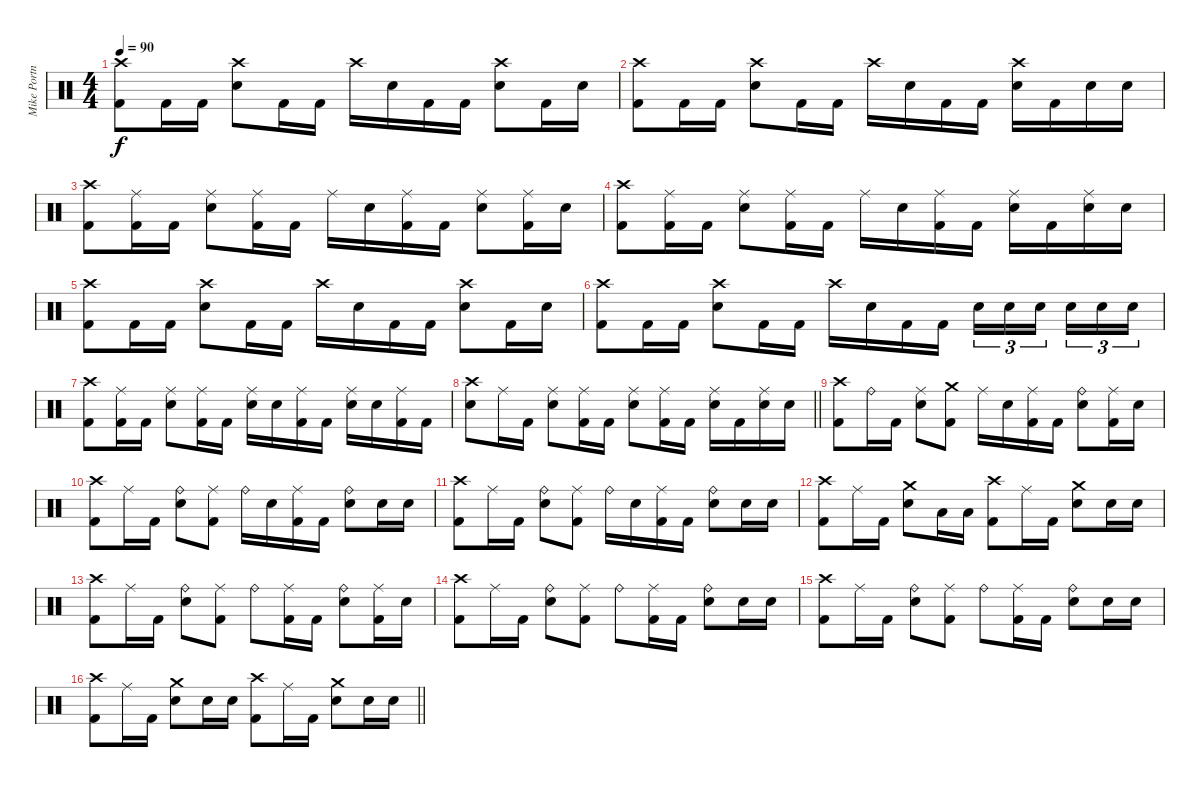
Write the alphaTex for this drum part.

\track ("Mike Portnoy" "Mike Portn") {instrument percussion}
\staff {score}
\articulation defaults
\ts (4 4)
\tempo 90
\clef neutral
\ks c
("Crash high (hit)" "Kick (hit) 2").8{dy f} "Kick (hit) 2".16 "Kick (hit) 2".16 ("Crash high (hit)" "Snare (hit) 2").8 "Kick (hit) 2".16 "Kick (hit) 2".16 "Crash high (hit)".16 "Snare (hit) 2".16 "Kick (hit) 2".16 "Kick (hit) 2".16 ("Crash high (hit)" "Snare (hit) 2").8 "Kick (hit) 2".16 "Snare (hit) 2".16 |
("Crash high (hit)" "Kick (hit) 2").8 "Kick (hit) 2".16 "Kick (hit) 2".16 ("Crash high (hit)" "Snare (hit) 2").8 "Kick (hit) 2".16 "Kick (hit) 2".16 "Crash high (hit)".16 "Snare (hit) 2".16 "Kick (hit) 2".16 "Kick (hit) 2".16 ("Crash high (hit)" "Snare (hit) 2").16 "Kick (hit) 2".16 "Snare (hit) 2".16 "Snare (hit) 2".16 |
("Crash high (hit)" "Kick (hit) 2").8 ("Ride (middle)" "Kick (hit) 2").16 "Kick (hit) 2".16 ("Ride (middle)" "Snare (hit) 2").8 ("Ride (middle)" "Kick (hit) 2").16 "Kick (hit) 2".16 "Ride (middle)".16 "Snare (hit) 2".16 ("Ride (middle)" "Kick (hit) 2").16 "Kick (hit) 2".16 ("Ride (middle)" "Snare (hit) 2").8 ("Ride (middle)" "Kick (hit) 2").16 "Snare (hit) 2".16 |
("Crash high (hit)" "Kick (hit) 2").8 ("Ride (middle)" "Kick (hit) 2").16 "Kick (hit) 2".16 ("Ride (middle)" "Snare (hit) 2").8 ("Ride (middle)" "Kick (hit) 2").16 "Kick (hit) 2".16 "Ride (middle)".16 "Snare (hit) 2".16 ("Ride (middle)" "Kick (hit) 2").16 "Kick (hit) 2".16 ("Ride (middle)" "Snare (hit) 2").16 "Kick (hit) 2".16 ("Ride (middle)" "Snare (hit) 2").16 "Snare (hit) 2".16 |
("Crash high (hit)" "Kick (hit) 2").8 "Kick (hit) 2".16 "Kick (hit) 2".16 ("Crash high (hit)" "Snare (hit) 2").8 "Kick (hit) 2".16 "Kick (hit) 2".16 "Crash high (hit)".16 "Snare (hit) 2".16 "Kick (hit) 2".16 "Kick (hit) 2".16 ("Crash high (hit)" "Snare (hit) 2").8 "Kick (hit) 2".16 "Snare (hit) 2".16 |
("Crash high (hit)" "Kick (hit) 2").8 "Kick (hit) 2".16 "Kick (hit) 2".16 ("Crash high (hit)" "Snare (hit) 2").8 "Kick (hit) 2".16 "Kick (hit) 2".16 "Crash high (hit)".16 "Snare (hit) 2".16 "Kick (hit) 2".16 "Kick (hit) 2".16 "Snare (hit) 2".16{tu (3 2)} "Snare (hit) 2".16{tu (3 2)} "Snare (hit) 2".16{tu (3 2) beam splitsecondary} "Snare (hit) 2".16{tu (3 2)} "Snare (hit) 2".16{tu (3 2)} "Snare (hit) 2".16{tu (3 2)} |
("Crash high (hit)" "Kick (hit) 2").8 ("Ride (middle)" "Kick (hit) 2").16 "Kick (hit) 2".16 ("Ride (middle)" "Snare (hit) 2").8 ("Ride (middle)" "Kick (hit) 2").16 "Kick (hit) 2".16 ("Ride (middle)" "Snare (hit) 2").16 "Snare (hit) 2".16 ("Ride (middle)" "Kick (hit) 2").16 "Kick (hit) 2".16 ("Ride (middle)" "Snare (hit) 2").16 "Snare (hit) 2".16 ("Ride (middle)" "Kick (hit) 2").16 "Kick (hit) 2".16 |
\barLineRight lightlight
("Crash high (hit)" "Snare (hit) 2").8 "Ride (middle)".16 "Kick (hit) 2".16 ("Ride (middle)" "Snare (hit) 2").8 ("Ride (middle)" "Kick (hit) 2").16 "Kick (hit) 2".16 ("Ride (middle)" "Snare (hit) 2").8 ("Ride (middle)" "Kick (hit) 2").16 "Kick (hit) 2".16 ("Ride (middle)" "Snare (hit) 2").16 "Kick (hit) 2".16 ("Ride (middle)" "Snare (hit) 2").16 "Snare (hit) 2".16 |
("Crash high (hit)" "Kick (hit) 2").8 "Ride (bell)".16 "Kick (hit) 2".16 ("Ride (middle)" "Snare (hit) 2").8 ("Crash medium (hit)" "Kick (hit) 2").8 "Ride (middle)".16 "Snare (hit) 2".16 ("Ride (middle)" "Kick (hit) 2").16 "Kick (hit) 2".16 ("Ride (bell)" "Snare (hit) 2").8 ("Ride (middle)" "Kick (hit) 2").16 "Snare (hit) 2".16 |
("Crash high (hit)" "Kick (hit) 2").8 "Ride (middle)".16 "Kick (hit) 2".16 ("Ride (bell)" "Snare (hit) 2").8 ("Ride (middle)" "Kick (hit) 2").8 "Ride (bell)".16 "Snare (hit) 2".16 ("Ride (middle)" "Kick (hit) 2").16 "Kick (hit) 2".16 ("Ride (bell)" "Snare (hit) 2").8 "Snare (hit) 2".16 "Snare (hit) 2".16 |
("Crash high (hit)" "Kick (hit) 2").8 "Ride (middle)".16 "Kick (hit) 2".16 ("Ride (bell)" "Snare (hit) 2").8 ("Ride (middle)" "Kick (hit) 2").8 "Ride (bell)".16 "Snare (hit) 2".16 ("Ride (middle)" "Kick (hit) 2").16 "Kick (hit) 2".16 ("Ride (bell)" "Snare (hit) 2").8 "Snare (hit) 2".16 "Snare (hit) 2".16 |
("Crash high (hit)" "Kick (hit) 2").8 "Ride (middle)".16 "Kick (hit) 2".16 ("Crash medium (hit)" "Snare (hit) 2").8 "Low Tom (hit)".16 "Low Tom (hit)".16 ("Crash high (hit)" "Kick (hit) 2").8 "Ride (middle)".16 "Kick (hit) 2".16 ("Crash medium (hit)" "Snare (hit) 2").8 "Snare (hit) 2".16 "Snare (hit) 2".16 |
("Crash high (hit)" "Kick (hit) 2").8 "Ride (middle)".16 "Kick (hit) 2".16 ("Ride (bell)" "Snare (hit) 2").8 ("Ride (middle)" "Kick (hit) 2").8 "Ride (bell)".8 ("Ride (middle)" "Kick (hit) 2").16 "Kick (hit) 2".16 ("Ride (bell)" "Snare (hit) 2").8 ("Ride (middle)" "Kick (hit) 2").16 "Snare (hit) 2".16 |
("Crash high (hit)" "Kick (hit) 2").8 "Ride (middle)".16 "Kick (hit) 2".16 ("Ride (bell)" "Snare (hit) 2").8 ("Ride (middle)" "Kick (hit) 2").8 "Ride (bell)".8 ("Ride (middle)" "Kick (hit) 2").16 "Kick (hit) 2".16 ("Ride (bell)" "Snare (hit) 2").8 "Snare (hit) 2".16 "Snare (hit) 2".16 |
("Crash high (hit)" "Kick (hit) 2").8 "Ride (middle)".16 "Kick (hit) 2".16 ("Ride (bell)" "Snare (hit) 2").8 ("Ride (middle)" "Kick (hit) 2").8 "Ride (bell)".8 ("Ride (middle)" "Kick (hit) 2").16 "Kick (hit) 2".16 ("Ride (bell)" "Snare (hit) 2").8 "Snare (hit) 2".16 "Snare (hit) 2".16 |
\barLineRight lightlight
("Crash high (hit)" "Kick (hit) 2").8 "Ride (middle)".16 "Kick (hit) 2".16 ("Crash medium (hit)" "Snare (hit) 2").8 "Snare (hit) 2".16 "Snare (hit) 2".16 ("Crash high (hit)" "Kick (hit) 2").8 "Ride (middle)".16 "Kick (hit) 2".16 ("Crash medium (hit)" "Snare (hit) 2").8 "Snare (hit) 2".16 "Snare (hit) 2".16
